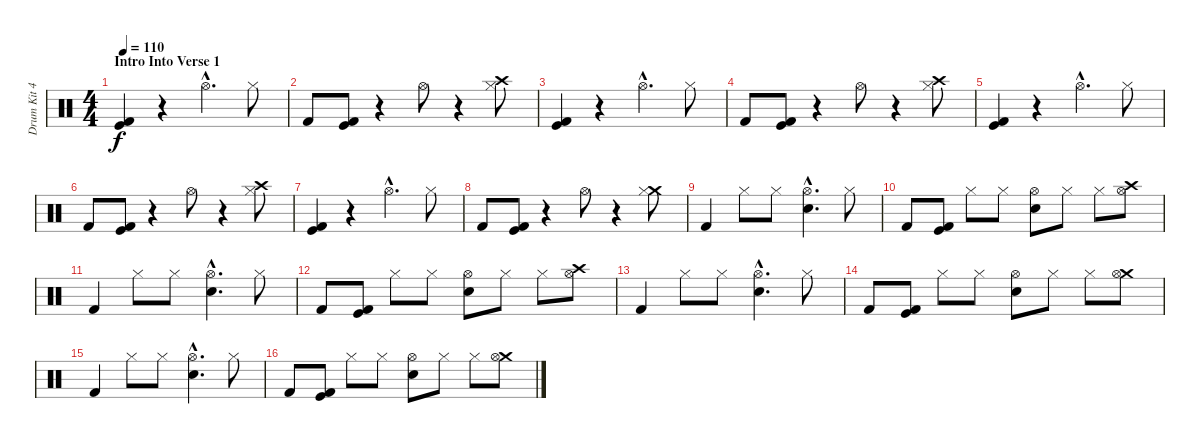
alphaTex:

\track ("Drum Kit 42" "Drum Kit 4") {instrument percussion}
\staff {score}
\articulation defaults
\ts (4 4)
\section ("" "Intro Into Verse 1")
\tempo 110
\clef neutral
\ks c
("Kick (hit)" "Kick (hit) 2").4{dy f} r.4 "Hi-Hat (open)"{hac}.4{d} "Hi-Hat (closed)".8 |
"Kick (hit) 2".8 ("Kick (hit)" "Kick (hit) 2").8 r.4 "Hi-Hat (open)".8 r.4 ("Crash high (hit)" "Hi-Hat (closed)").8 |
("Kick (hit)" "Kick (hit) 2").4 r.4 "Hi-Hat (open)"{hac}.4{d} "Hi-Hat (closed)".8 |
"Kick (hit) 2".8 ("Kick (hit)" "Kick (hit) 2").8 r.4 "Hi-Hat (open)".8 r.4 ("Crash high (hit)" "Hi-Hat (closed)").8 |
("Kick (hit)" "Kick (hit) 2").4 r.4 "Hi-Hat (open)"{hac}.4{d} "Hi-Hat (closed)".8 |
"Kick (hit) 2".8 ("Kick (hit)" "Kick (hit) 2").8 r.4 "Hi-Hat (open)".8 r.4 ("Crash high (hit)" "Hi-Hat (closed)").8 |
("Kick (hit)" "Kick (hit) 2").4 r.4 "Hi-Hat (open)"{hac}.4{d} "Hi-Hat (closed)".8 |
"Kick (hit) 2".8 ("Kick (hit)" "Kick (hit) 2").8 r.4 "Hi-Hat (open)".8 r.4 ("Crash medium (hit)" "Hi-Hat (closed)").8 |
"Kick (hit) 2".4 "Hi-Hat (closed)".8 "Hi-Hat (closed)".8 ("Hi-Hat (open)"{hac} "Snare (hit) 2"{hac}).4{d} "Hi-Hat (closed)".8 |
"Kick (hit) 2".8 ("Kick (hit)" "Kick (hit) 2").8 "Hi-Hat (closed)".8 "Hi-Hat (closed)".8 ("Hi-Hat (open)" "Snare (hit) 2").8 "Hi-Hat (closed)".8 "Hi-Hat (closed)".8 ("Crash high (hit)" "Hi-Hat (open)").8 |
"Kick (hit) 2".4 "Hi-Hat (closed)".8 "Hi-Hat (closed)".8 ("Hi-Hat (open)"{hac} "Snare (hit) 2"{hac}).4{d} "Hi-Hat (closed)".8 |
"Kick (hit) 2".8 ("Kick (hit)" "Kick (hit) 2").8 "Hi-Hat (closed)".8 "Hi-Hat (closed)".8 ("Hi-Hat (open)" "Snare (hit) 2").8 "Hi-Hat (closed)".8 "Hi-Hat (closed)".8 ("Crash high (hit)" "Hi-Hat (open)").8 |
"Kick (hit) 2".4 "Hi-Hat (closed)".8 "Hi-Hat (closed)".8 ("Hi-Hat (open)"{hac} "Snare (hit) 2"{hac}).4{d} "Hi-Hat (closed)".8 |
"Kick (hit) 2".8 ("Kick (hit)" "Kick (hit) 2").8 "Hi-Hat (closed)".8 "Hi-Hat (closed)".8 ("Hi-Hat (open)" "Snare (hit) 2").8 "Hi-Hat (closed)".8 "Hi-Hat (closed)".8 ("Crash medium (hit)" "Hi-Hat (open)").8 |
"Kick (hit) 2".4 "Hi-Hat (closed)".8 "Hi-Hat (closed)".8 ("Hi-Hat (open)"{hac} "Snare (hit) 2"{hac}).4{d} "Hi-Hat (closed)".8 |
"Kick (hit) 2".8 ("Kick (hit)" "Kick (hit) 2").8 "Hi-Hat (closed)".8 "Hi-Hat (closed)".8 ("Hi-Hat (open)" "Snare (hit) 2").8 "Hi-Hat (closed)".8 "Hi-Hat (closed)".8 ("Crash medium (hit)" "Hi-Hat (open)").8
